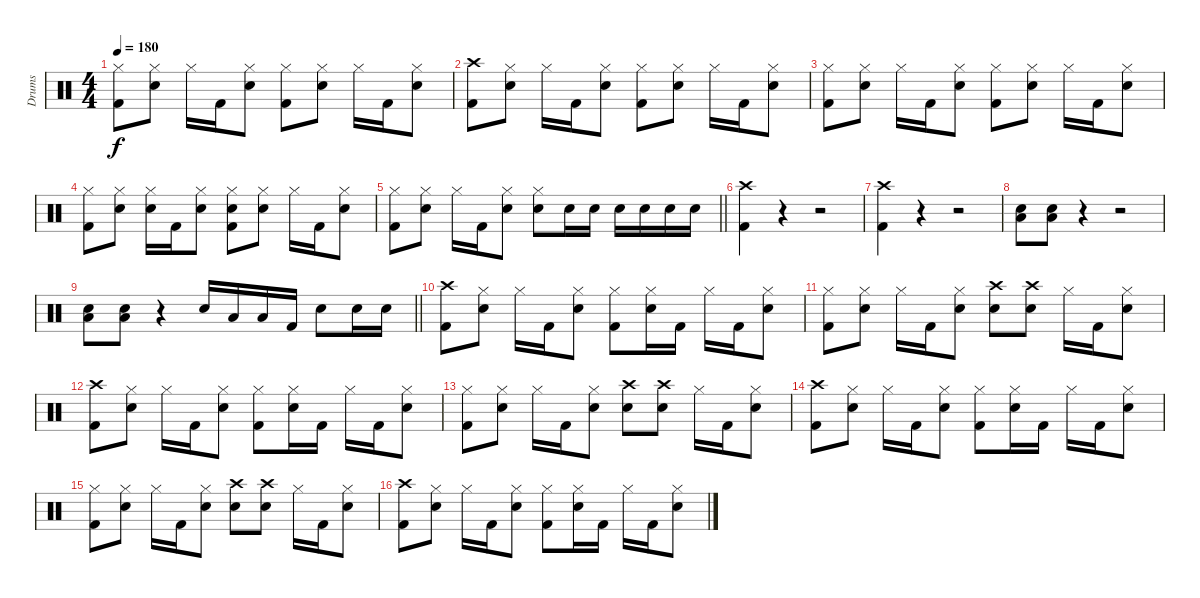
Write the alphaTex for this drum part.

\track ("Drums" "Drums") {instrument percussion}
\staff {score}
\articulation defaults
\ts (4 4)
\tempo 180
\clef neutral
\ks c
("Hi-Hat (closed)" "Kick (hit) 2").8{dy f} ("Hi-Hat (closed)" "Snare (hit) 2").8 "Hi-Hat (closed)".16 "Kick (hit) 2".16 ("Hi-Hat (closed)" "Snare (hit) 2").8 ("Hi-Hat (closed)" "Kick (hit) 2").8 ("Hi-Hat (closed)" "Snare (hit) 2").8 "Hi-Hat (closed)".16 "Kick (hit) 2".16 ("Hi-Hat (closed)" "Snare (hit) 2").8 |
("Crash high (hit)" "Kick (hit) 2").8 ("Hi-Hat (closed)" "Snare (hit) 2").8 "Hi-Hat (closed)".16 "Kick (hit) 2".16 ("Hi-Hat (closed)" "Snare (hit) 2").8 ("Hi-Hat (closed)" "Kick (hit) 2").8 ("Hi-Hat (closed)" "Snare (hit) 2").8 "Hi-Hat (closed)".16 "Kick (hit) 2".16 ("Hi-Hat (closed)" "Snare (hit) 2").8 |
("Hi-Hat (closed)" "Kick (hit) 2").8 ("Hi-Hat (closed)" "Snare (hit) 2").8 "Hi-Hat (closed)".16 "Kick (hit) 2".16 ("Hi-Hat (closed)" "Snare (hit) 2").8 ("Hi-Hat (closed)" "Kick (hit) 2").8 ("Hi-Hat (closed)" "Snare (hit) 2").8 "Hi-Hat (closed)".16 "Kick (hit) 2".16 ("Hi-Hat (closed)" "Snare (hit) 2").8 |
("Hi-Hat (closed)" "Kick (hit) 2").8 ("Hi-Hat (closed)" "Snare (hit) 2").8 ("Hi-Hat (closed)" "Snare (hit) 2").16 "Kick (hit) 2".16 ("Hi-Hat (closed)" "Snare (hit) 2").8 ("Hi-Hat (closed)" "Snare (hit) 2" "Kick (hit) 2").8 ("Hi-Hat (closed)" "Snare (hit) 2").8 "Hi-Hat (closed)".16 "Kick (hit) 2".16 ("Hi-Hat (closed)" "Snare (hit) 2").8 |
\barLineRight lightlight
("Hi-Hat (closed)" "Kick (hit) 2").8 ("Hi-Hat (closed)" "Snare (hit) 2").8 "Hi-Hat (closed)".16 "Kick (hit) 2".16 ("Hi-Hat (closed)" "Snare (hit) 2").8 ("Hi-Hat (closed)" "Snare (hit) 2").8 "Snare (hit) 2".16 "Snare (hit) 2".16 "Snare (hit) 2".16 "Snare (hit) 2".16 "Snare (hit) 2".16 "Snare (hit) 2".16 |
("Crash high (hit)" "Kick (hit) 2").4 r.4 r.2 |
("Crash high (hit)" "Kick (hit) 2").4 r.4 r.2 |
("Snare (hit) 2" "Low Floor Tom (hit)").8 ("Snare (hit) 2" "Low Floor Tom (hit)").8 r.4 r.2 |
\barLineRight lightlight
("Snare (hit) 2" "Low Floor Tom (hit)").8 ("Snare (hit) 2" "Low Floor Tom (hit)").8 r.4 "Snare (hit) 2".16 "Low Tom (hit)".16 "Low Floor Tom (hit)".16 "Kick (hit) 2".16 "Snare (hit) 2".8 "Snare (hit) 2".16 "Snare (hit) 2".16 |
("Crash high (hit)" "Kick (hit) 2").8 ("Hi-Hat (closed)" "Snare (hit) 2").8 "Hi-Hat (closed)".16 "Kick (hit) 2".16 ("Hi-Hat (closed)" "Snare (hit) 2").8 ("Hi-Hat (closed)" "Kick (hit) 2").8 ("Hi-Hat (closed)" "Snare (hit) 2").16 "Kick (hit) 2".16 "Hi-Hat (closed)".16 "Kick (hit) 2".16 ("Hi-Hat (closed)" "Snare (hit) 2").8 |
("Hi-Hat (closed)" "Kick (hit) 2").8 ("Hi-Hat (closed)" "Snare (hit) 2").8 "Hi-Hat (closed)".16 "Kick (hit) 2".16 ("Hi-Hat (closed)" "Snare (hit) 2").8 ("Crash high (hit)" "Snare (hit) 2").8 ("Crash high (hit)" "Snare (hit) 2").8 "Hi-Hat (closed)".16 "Kick (hit) 2".16 ("Hi-Hat (closed)" "Snare (hit) 2").8 |
("Crash high (hit)" "Kick (hit) 2").8 ("Hi-Hat (closed)" "Snare (hit) 2").8 "Hi-Hat (closed)".16 "Kick (hit) 2".16 ("Hi-Hat (closed)" "Snare (hit) 2").8 ("Hi-Hat (closed)" "Kick (hit) 2").8 ("Hi-Hat (closed)" "Snare (hit) 2").16 "Kick (hit) 2".16 "Hi-Hat (closed)".16 "Kick (hit) 2".16 ("Hi-Hat (closed)" "Snare (hit) 2").8 |
("Hi-Hat (closed)" "Kick (hit) 2").8 ("Hi-Hat (closed)" "Snare (hit) 2").8 "Hi-Hat (closed)".16 "Kick (hit) 2".16 ("Hi-Hat (closed)" "Snare (hit) 2").8 ("Crash high (hit)" "Snare (hit) 2").8 ("Crash high (hit)" "Snare (hit) 2").8 "Hi-Hat (closed)".16 "Kick (hit) 2".16 ("Hi-Hat (closed)" "Snare (hit) 2").8 |
("Crash high (hit)" "Kick (hit) 2").8 ("Hi-Hat (closed)" "Snare (hit) 2").8 "Hi-Hat (closed)".16 "Kick (hit) 2".16 ("Hi-Hat (closed)" "Snare (hit) 2").8 ("Hi-Hat (closed)" "Kick (hit) 2").8 ("Hi-Hat (closed)" "Snare (hit) 2").16 "Kick (hit) 2".16 "Hi-Hat (closed)".16 "Kick (hit) 2".16 ("Hi-Hat (closed)" "Snare (hit) 2").8 |
("Hi-Hat (closed)" "Kick (hit) 2").8 ("Hi-Hat (closed)" "Snare (hit) 2").8 "Hi-Hat (closed)".16 "Kick (hit) 2".16 ("Hi-Hat (closed)" "Snare (hit) 2").8 ("Crash high (hit)" "Snare (hit) 2").8 ("Crash high (hit)" "Snare (hit) 2").8 "Hi-Hat (closed)".16 "Kick (hit) 2".16 ("Hi-Hat (closed)" "Snare (hit) 2").8 |
("Crash high (hit)" "Kick (hit) 2").8 ("Hi-Hat (closed)" "Snare (hit) 2").8 "Hi-Hat (closed)".16 "Kick (hit) 2".16 ("Hi-Hat (closed)" "Snare (hit) 2").8 ("Hi-Hat (closed)" "Kick (hit) 2").8 ("Hi-Hat (closed)" "Snare (hit) 2").16 "Kick (hit) 2".16 "Hi-Hat (closed)".16 "Kick (hit) 2".16 ("Hi-Hat (closed)" "Snare (hit) 2").8
